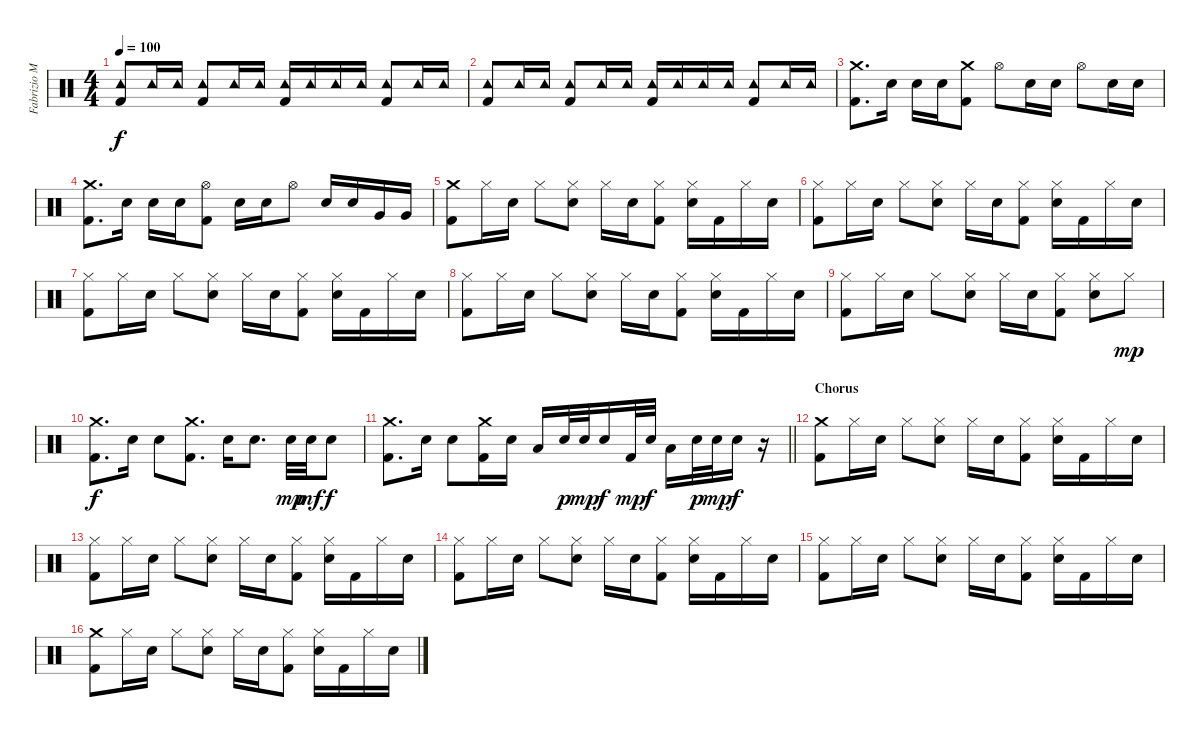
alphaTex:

\track ("Fabrizio Moretti" "Fabrizio M") {instrument percussion}
\staff {score}
\articulation defaults
\ts (4 4)
\tempo 100
\clef neutral
\ks c
("Tambourine (hit)" "Kick (hit) 2").8{dy f} "Tambourine (hit)".16 "Tambourine (hit)".16 ("Tambourine (hit)" "Kick (hit) 2").8 "Tambourine (hit)".16 "Tambourine (hit)".16 ("Tambourine (hit)" "Kick (hit) 2").16 "Tambourine (hit)".16 "Tambourine (hit)".16 "Tambourine (hit)".16 ("Tambourine (hit)" "Kick (hit) 2").8 "Tambourine (hit)".16 "Tambourine (hit)".16 |
("Tambourine (hit)" "Kick (hit) 2").8 "Tambourine (hit)".16 "Tambourine (hit)".16 ("Tambourine (hit)" "Kick (hit) 2").8 "Tambourine (hit)".16 "Tambourine (hit)".16 ("Tambourine (hit)" "Kick (hit) 2").16 "Tambourine (hit)".16 "Tambourine (hit)".16 "Tambourine (hit)".16 ("Tambourine (hit)" "Kick (hit) 2").8 "Tambourine (hit)".16 "Tambourine (hit)".16 |
("Crash medium (hit)" "Kick (hit) 2").8{d} "Snare (hit) 2".16 "Snare (hit) 2".16 "Snare (hit) 2".16 ("Crash medium (hit)" "Kick (hit) 2").8 "Hi-Hat (open)".8 "Snare (hit) 2".16 "Snare (hit) 2".16 "Hi-Hat (open)".8 "Snare (hit) 2".16 "Snare (hit) 2".16 |
("Crash medium (hit)" "Kick (hit) 2").8{d} "Snare (hit) 2".16 "Snare (hit) 2".16 "Snare (hit) 2".16 ("Hi-Hat (open)" "Kick (hit) 2").8 "Snare (hit) 2".16 "Snare (hit) 2".16 "Hi-Hat (open)".8 "Snare (hit) 2".16 "Snare (hit) 2".16 "Very Low Tom (hit)".16 "Very Low Tom (hit)".16 |
("Crash medium (hit)" "Kick (hit) 2").8 "Hi-Hat (closed)".16 "Snare (hit) 2".16 "Hi-Hat (closed)".8 ("Hi-Hat (closed)" "Snare (hit) 2").8 "Hi-Hat (closed)".16 "Snare (hit) 2".16 ("Hi-Hat (closed)" "Kick (hit) 2").8 ("Hi-Hat (closed)" "Snare (hit) 2").16 "Kick (hit) 2".16 "Hi-Hat (closed)".16 "Snare (hit) 2".16 |
("Hi-Hat (closed)" "Kick (hit) 2").8 "Hi-Hat (closed)".16 "Snare (hit) 2".16 "Hi-Hat (closed)".8 ("Hi-Hat (closed)" "Snare (hit) 2").8 "Hi-Hat (closed)".16 "Snare (hit) 2".16 ("Hi-Hat (closed)" "Kick (hit) 2").8 ("Hi-Hat (closed)" "Snare (hit) 2").16 "Kick (hit) 2".16 "Hi-Hat (closed)".16 "Snare (hit) 2".16 |
("Hi-Hat (closed)" "Kick (hit) 2").8 "Hi-Hat (closed)".16 "Snare (hit) 2".16 "Hi-Hat (closed)".8 ("Hi-Hat (closed)" "Snare (hit) 2").8 "Hi-Hat (closed)".16 "Snare (hit) 2".16 ("Hi-Hat (closed)" "Kick (hit) 2").8 ("Hi-Hat (closed)" "Snare (hit) 2").16 "Kick (hit) 2".16 "Hi-Hat (closed)".16 "Snare (hit) 2".16 |
("Hi-Hat (closed)" "Kick (hit) 2").8 "Hi-Hat (closed)".16 "Snare (hit) 2".16 "Hi-Hat (closed)".8 ("Hi-Hat (closed)" "Snare (hit) 2").8 "Hi-Hat (closed)".16 "Snare (hit) 2".16 ("Hi-Hat (closed)" "Kick (hit) 2").8 ("Hi-Hat (closed)" "Snare (hit) 2").16 "Kick (hit) 2".16 "Hi-Hat (closed)".16 "Snare (hit) 2".16 |
("Hi-Hat (closed)" "Kick (hit) 2").8 "Hi-Hat (closed)".16 "Snare (hit) 2".16 "Hi-Hat (closed)".8 ("Hi-Hat (closed)" "Snare (hit) 2").8 "Hi-Hat (closed)".16 "Snare (hit) 2".16 ("Hi-Hat (closed)" "Kick (hit) 2").8 ("Hi-Hat (closed)" "Snare (hit) 2").8 "Hi-Hat (closed)".8{dy mp} |
("Crash medium (hit)" "Kick (hit) 2").8{d dy f} "Snare (hit) 2".16 "Snare (hit) 2".8 ("Crash medium (hit)" "Kick (hit) 2").8{d} "Snare (hit) 2".16 "Snare (hit) 2".8{d} "Snare (hit) 2".32{dy mp} "Snare (hit) 2".32{dy mf} "Snare (hit) 2".8{dy f} |
\barLineRight lightlight
("Crash medium (hit)" "Kick (hit) 2").8{d} "Snare (hit) 2".16 "Snare (hit) 2".8 ("Crash medium (hit)" "Kick (hit) 2").16 "Snare (hit) 2".16 "Low Tom (hit)".16 "Snare (hit) 2".32{dy p} "Snare (hit) 2".32{dy mp} "Snare (hit) 2".16{dy f} "Kick (hit) 2".32{dy mp} "Snare (hit) 2".32{dy f} "Low Tom (hit)".16 "Snare (hit) 2".32{dy p} "Snare (hit) 2".32{dy mp} "Snare (hit) 2".16{dy f} r.16 |
\section ("" "Chorus")
("Crash medium (hit)" "Kick (hit) 2").8 "Hi-Hat (closed)".16 "Snare (hit) 2".16 "Hi-Hat (closed)".8 ("Hi-Hat (closed)" "Snare (hit) 2").8 "Hi-Hat (closed)".16 "Snare (hit) 2".16 ("Hi-Hat (closed)" "Kick (hit) 2").8 ("Hi-Hat (closed)" "Snare (hit) 2").16 "Kick (hit) 2".16 "Hi-Hat (closed)".16 "Snare (hit) 2".16 |
("Hi-Hat (closed)" "Kick (hit) 2").8 "Hi-Hat (closed)".16 "Snare (hit) 2".16 "Hi-Hat (closed)".8 ("Hi-Hat (closed)" "Snare (hit) 2").8 "Hi-Hat (closed)".16 "Snare (hit) 2".16 ("Hi-Hat (closed)" "Kick (hit) 2").8 ("Hi-Hat (closed)" "Snare (hit) 2").16 "Kick (hit) 2".16 "Hi-Hat (closed)".16 "Snare (hit) 2".16 |
("Hi-Hat (closed)" "Kick (hit) 2").8 "Hi-Hat (closed)".16 "Snare (hit) 2".16 "Hi-Hat (closed)".8 ("Hi-Hat (closed)" "Snare (hit) 2").8 "Hi-Hat (closed)".16 "Snare (hit) 2".16 ("Hi-Hat (closed)" "Kick (hit) 2").8 ("Hi-Hat (closed)" "Snare (hit) 2").16 "Kick (hit) 2".16 "Hi-Hat (closed)".16 "Snare (hit) 2".16 |
("Hi-Hat (closed)" "Kick (hit) 2").8 "Hi-Hat (closed)".16 "Snare (hit) 2".16 "Hi-Hat (closed)".8 ("Hi-Hat (closed)" "Snare (hit) 2").8 "Hi-Hat (closed)".16 "Snare (hit) 2".16 ("Hi-Hat (closed)" "Kick (hit) 2").8 ("Hi-Hat (closed)" "Snare (hit) 2").16 "Kick (hit) 2".16 "Hi-Hat (closed)".16 "Snare (hit) 2".16 |
("Crash medium (hit)" "Kick (hit) 2").8 "Hi-Hat (closed)".16 "Snare (hit) 2".16 "Hi-Hat (closed)".8 ("Hi-Hat (closed)" "Snare (hit) 2").8 "Hi-Hat (closed)".16 "Snare (hit) 2".16 ("Hi-Hat (closed)" "Kick (hit) 2").8 ("Hi-Hat (closed)" "Snare (hit) 2").16 "Kick (hit) 2".16 "Hi-Hat (closed)".16 "Snare (hit) 2".16
